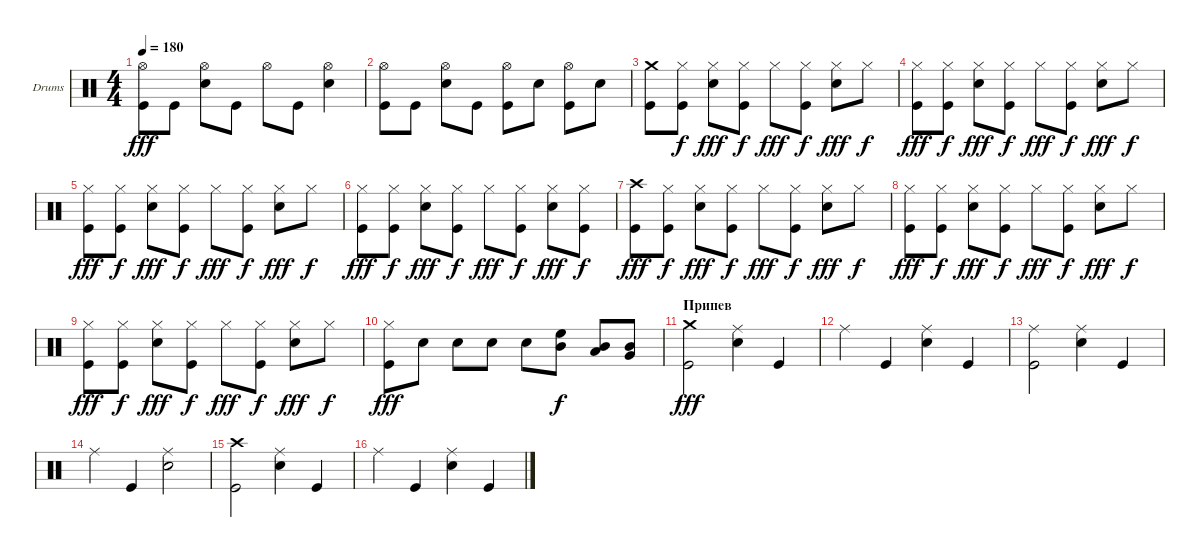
\defaultSystemsLayout 4
\bracketExtendMode groupsimilarinstruments
\firstSystemTrackNameOrientation horizontal
\otherSystemsTrackNameOrientation horizontal
\track ("Барабаны" "Drums") {instrument percussion}
\staff {score}
\articulation defaults
\ts (4 4)
\tempo 180
\clef neutral
\ks c
("Hi-Hat (open)" "Kick (hit)").8{dy fff} "Kick (hit)".8 ("Hi-Hat (open)" "Snare (hit) 2").8 "Kick (hit)".8 "Hi-Hat (open)".8 "Kick (hit)".8 ("Hi-Hat (open)" "Snare (hit) 2").4 |
("Hi-Hat (open)" "Kick (hit)").8 "Kick (hit)".8 ("Hi-Hat (open)" "Snare (hit) 2").8 "Kick (hit)".8 ("Hi-Hat (open)" "Kick (hit)").8 "Snare (hit) 2".8 ("Hi-Hat (open)" "Kick (hit)").8 "Snare (hit) 2".8 |
("Crash medium (hit)" "Kick (hit)").8 ("Hi-Hat (closed)" "Kick (hit)").8{dy f} ("Hi-Hat (closed)" "Snare (hit) 2").8{dy fff} ("Hi-Hat (closed)" "Kick (hit)").8{dy f} "Hi-Hat (closed)".8{dy fff} ("Hi-Hat (closed)" "Kick (hit)").8{dy f} ("Hi-Hat (closed)" "Snare (hit) 2").8{dy fff} "Hi-Hat (closed)".8{dy f} |
("Hi-Hat (closed)" "Kick (hit)").8{dy fff} ("Hi-Hat (closed)" "Kick (hit)").8{dy f} ("Hi-Hat (closed)" "Snare (hit) 2").8{dy fff} ("Hi-Hat (closed)" "Kick (hit)").8{dy f} "Hi-Hat (closed)".8{dy fff} ("Hi-Hat (closed)" "Kick (hit)").8{dy f} ("Hi-Hat (closed)" "Snare (hit) 2").8{dy fff} "Hi-Hat (closed)".8{dy f} |
("Hi-Hat (closed)" "Kick (hit)").8{dy fff} ("Hi-Hat (closed)" "Kick (hit)").8{dy f} ("Hi-Hat (closed)" "Snare (hit) 2").8{dy fff} ("Hi-Hat (closed)" "Kick (hit)").8{dy f} "Hi-Hat (closed)".8{dy fff} ("Hi-Hat (closed)" "Kick (hit)").8{dy f} ("Hi-Hat (closed)" "Snare (hit) 2").8{dy fff} "Hi-Hat (closed)".8{dy f} |
("Hi-Hat (closed)" "Kick (hit)").8{dy fff} ("Hi-Hat (closed)" "Kick (hit)").8{dy f} ("Hi-Hat (closed)" "Snare (hit) 2").8{dy fff} ("Hi-Hat (closed)" "Kick (hit)").8{dy f} "Hi-Hat (closed)".8{dy fff} ("Hi-Hat (closed)" "Kick (hit)").8{dy f} ("Hi-Hat (closed)" "Snare (hit) 2").8{dy fff} ("Hi-Hat (closed)" "Kick (hit)").8{dy f} |
("Crash high (hit)" "Kick (hit)").8{dy fff} ("Hi-Hat (closed)" "Kick (hit)").8{dy f} ("Hi-Hat (closed)" "Snare (hit) 2").8{dy fff} ("Hi-Hat (closed)" "Kick (hit)").8{dy f} "Hi-Hat (closed)".8{dy fff} ("Hi-Hat (closed)" "Kick (hit)").8{dy f} ("Hi-Hat (closed)" "Snare (hit) 2").8{dy fff} "Hi-Hat (closed)".8{dy f} |
("Hi-Hat (closed)" "Kick (hit)").8{dy fff} ("Hi-Hat (closed)" "Kick (hit)").8{dy f} ("Hi-Hat (closed)" "Snare (hit) 2").8{dy fff} ("Hi-Hat (closed)" "Kick (hit)").8{dy f} "Hi-Hat (closed)".8{dy fff} ("Hi-Hat (closed)" "Kick (hit)").8{dy f} ("Hi-Hat (closed)" "Snare (hit) 2").8{dy fff} "Hi-Hat (closed)".8{dy f} |
("Hi-Hat (closed)" "Kick (hit)").8{dy fff} ("Hi-Hat (closed)" "Kick (hit)").8{dy f} ("Hi-Hat (closed)" "Snare (hit) 2").8{dy fff} ("Hi-Hat (closed)" "Kick (hit)").8{dy f} "Hi-Hat (closed)".8{dy fff} ("Hi-Hat (closed)" "Kick (hit)").8{dy f} ("Hi-Hat (closed)" "Snare (hit) 2").8{dy fff} "Hi-Hat (closed)".8{dy f} |
("Hi-Hat (closed)" "Kick (hit)").8{dy fff} "Snare (hit) 2".8 "Snare (hit) 2".8 "Snare (hit) 2".8 "Snare (hit) 2".8 ("High Floor Tom (hit)" "Mid Tom (hit)").8{dy f} ("Mid Tom (hit)" "Low Tom (hit)").8 ("Very Low Tom (hit)" "Mid Tom (hit)").8 |
\section ("" "Припев")
("Crash medium (hit)" "Kick (hit)").2{dy fff} ("Ride (middle)" "Snare (hit) 2").4 "Kick (hit)".4 |
"Ride (middle)".4 "Kick (hit)".4 ("Ride (middle)" "Snare (hit) 2").4 "Kick (hit)".4 |
("Ride (middle)" "Kick (hit)").2 ("Ride (middle)" "Snare (hit) 2").4 "Kick (hit)".4 |
"Ride (middle)".4 "Kick (hit)".4 ("Ride (middle)" "Snare (hit) 2").2 |
("Crash high (hit)" "Kick (hit)").2 ("Ride (middle)" "Snare (hit) 2").4 "Kick (hit)".4 |
"Ride (middle)".4 "Kick (hit)".4 ("Ride (middle)" "Snare (hit) 2").4 "Kick (hit)".4
